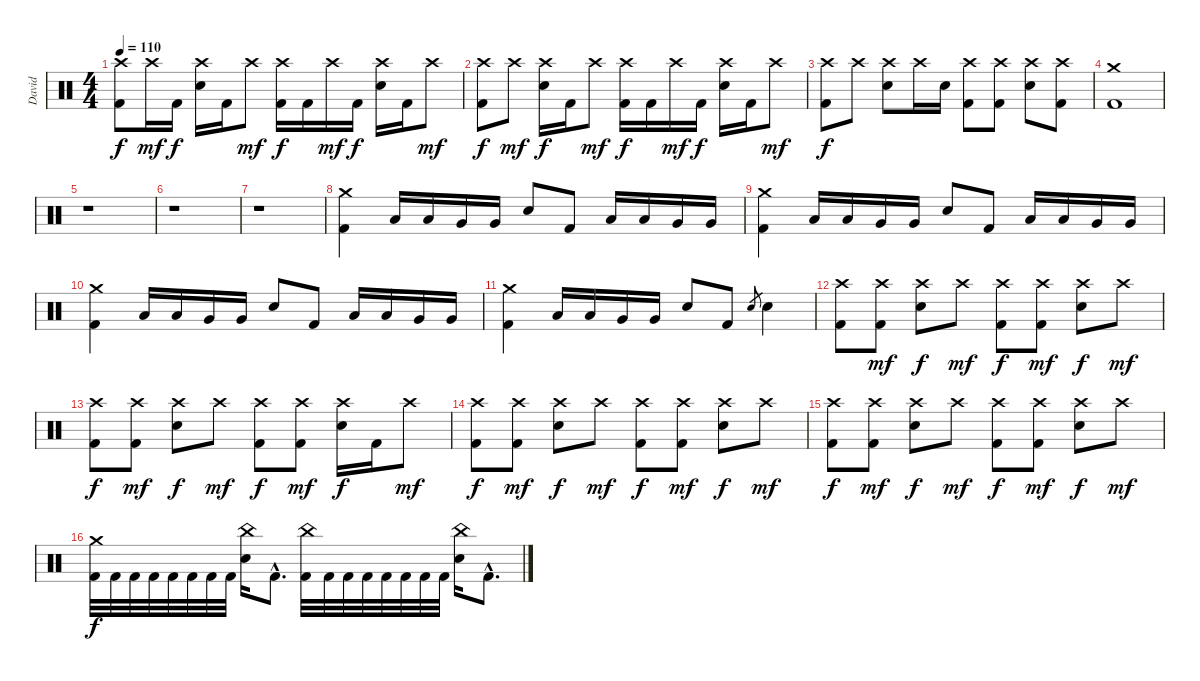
\track ("David" "David") {instrument percussion}
\staff {score}
\articulation defaults
\ts (4 4)
\tempo 110
\clef neutral
\ks c
("Crash high (hit)" "Kick (hit) 2").8{dy f} "Crash high (hit)".16{dy mf} "Kick (hit) 2".16{dy f} ("Crash high (hit)" "Electric Snare (hit)").16 "Kick (hit) 2".16 "Crash high (hit)".8{dy mf} ("Crash high (hit)" "Kick (hit) 2").16{dy f} "Kick (hit) 2".16 "Crash high (hit)".16{dy mf} "Kick (hit) 2".16{dy f} ("Crash high (hit)" "Electric Snare (hit)").16 "Kick (hit) 2".16 "Crash high (hit)".8{dy mf} |
("Crash high (hit)" "Kick (hit) 2").8{dy f} "Crash high (hit)".8{dy mf} ("Crash high (hit)" "Electric Snare (hit)").16{dy f} "Kick (hit) 2".16 "Crash high (hit)".8{dy mf} ("Crash high (hit)" "Kick (hit) 2").16{dy f} "Kick (hit) 2".16 "Crash high (hit)".16{dy mf} "Kick (hit) 2".16{dy f} ("Crash high (hit)" "Electric Snare (hit)").16 "Kick (hit) 2".16 "Crash high (hit)".8{dy mf} |
("Crash high (hit)" "Kick (hit) 2").8{dy f} "Crash high (hit)".8 ("Crash high (hit)" "Electric Snare (hit)").8 "Crash high (hit)".16 "Electric Snare (hit)".16 ("Crash high (hit)" "Kick (hit) 2").8 ("Crash high (hit)" "Kick (hit) 2").8 ("Crash high (hit)" "Electric Snare (hit)").8 ("Crash high (hit)" "Kick (hit) 2").8 |
("Crash medium (hit)" "Kick (hit) 2").1 |
r.1 |
r.1 |
r.1 |
("Crash medium (hit)" "Kick (hit) 2").4 "Low Tom (hit)".16 "Low Tom (hit)".16 "Very Low Tom (hit)".16 "Very Low Tom (hit)".16 "Electric Snare (hit)".8 "Kick (hit) 2".8 "Low Tom (hit)".16 "Low Tom (hit)".16 "Very Low Tom (hit)".16 "Very Low Tom (hit)".16 |
("Crash medium (hit)" "Kick (hit) 2").4 "Low Tom (hit)".16 "Low Tom (hit)".16 "Very Low Tom (hit)".16 "Very Low Tom (hit)".16 "Electric Snare (hit)".8 "Kick (hit) 2".8 "Low Tom (hit)".16 "Low Tom (hit)".16 "Very Low Tom (hit)".16 "Very Low Tom (hit)".16 |
("Crash medium (hit)" "Kick (hit) 2").4 "Low Tom (hit)".16 "Low Tom (hit)".16 "Very Low Tom (hit)".16 "Very Low Tom (hit)".16 "Electric Snare (hit)".8 "Kick (hit) 2".8 "Low Tom (hit)".16 "Low Tom (hit)".16 "Very Low Tom (hit)".16 "Very Low Tom (hit)".16 |
("Crash medium (hit)" "Kick (hit) 2").4 "Low Tom (hit)".16 "Low Tom (hit)".16 "Very Low Tom (hit)".16 "Very Low Tom (hit)".16 "Electric Snare (hit)".8 "Kick (hit) 2".8 "Electric Snare (hit)".8{gr} "Electric Snare (hit)".4 |
("Crash high (hit)" "Kick (hit) 2").8 ("Crash high (hit)" "Kick (hit) 2").8{dy mf} ("Crash high (hit)" "Electric Snare (hit)").8{dy f} "Crash high (hit)".8{dy mf} ("Crash high (hit)" "Kick (hit) 2").8{dy f} ("Crash high (hit)" "Kick (hit) 2").8{dy mf} ("Crash high (hit)" "Electric Snare (hit)").8{dy f} "Crash high (hit)".8{dy mf} |
("Crash high (hit)" "Kick (hit) 2").8{dy f} ("Crash high (hit)" "Kick (hit) 2").8{dy mf} ("Crash high (hit)" "Electric Snare (hit)").8{dy f} "Crash high (hit)".8{dy mf} ("Crash high (hit)" "Kick (hit) 2").8{dy f} ("Crash high (hit)" "Kick (hit) 2").8{dy mf} ("Crash high (hit)" "Electric Snare (hit)").16{dy f} "Kick (hit) 2".16 "Crash high (hit)".8{dy mf} |
("Crash high (hit)" "Kick (hit) 2").8{dy f} ("Crash high (hit)" "Kick (hit) 2").8{dy mf} ("Crash high (hit)" "Electric Snare (hit)").8{dy f} "Crash high (hit)".8{dy mf} ("Crash high (hit)" "Kick (hit) 2").8{dy f} ("Crash high (hit)" "Kick (hit) 2").8{dy mf} ("Crash high (hit)" "Electric Snare (hit)").8{dy f} "Crash high (hit)".8{dy mf} |
("Crash high (hit)" "Kick (hit) 2").8{dy f} ("Crash high (hit)" "Kick (hit) 2").8{dy mf} ("Crash high (hit)" "Electric Snare (hit)").8{dy f} "Crash high (hit)".8{dy mf} ("Crash high (hit)" "Kick (hit) 2").8{dy f} ("Crash high (hit)" "Kick (hit) 2").8{dy mf} ("Crash high (hit)" "Electric Snare (hit)").8{dy f} "Crash high (hit)".8{dy mf} |
("Crash medium (hit)" "Kick (hit) 2").32{dy f} "Kick (hit) 2".32 "Kick (hit) 2".32 "Kick (hit) 2".32 "Kick (hit) 2".32 "Kick (hit) 2".32 "Kick (hit) 2".32 "Kick (hit) 2".32 ("China (hit)" "Electric Snare (hit)").16 "Kick (hit) 2"{hac}.8{d} ("China (hit)" "Kick (hit) 2").32 "Kick (hit) 2".32 "Kick (hit) 2".32 "Kick (hit) 2".32 "Kick (hit) 2".32 "Kick (hit) 2".32 "Kick (hit) 2".32 "Kick (hit) 2".32 ("China (hit)" "Electric Snare (hit)").16 "Kick (hit) 2"{hac}.8{d}
